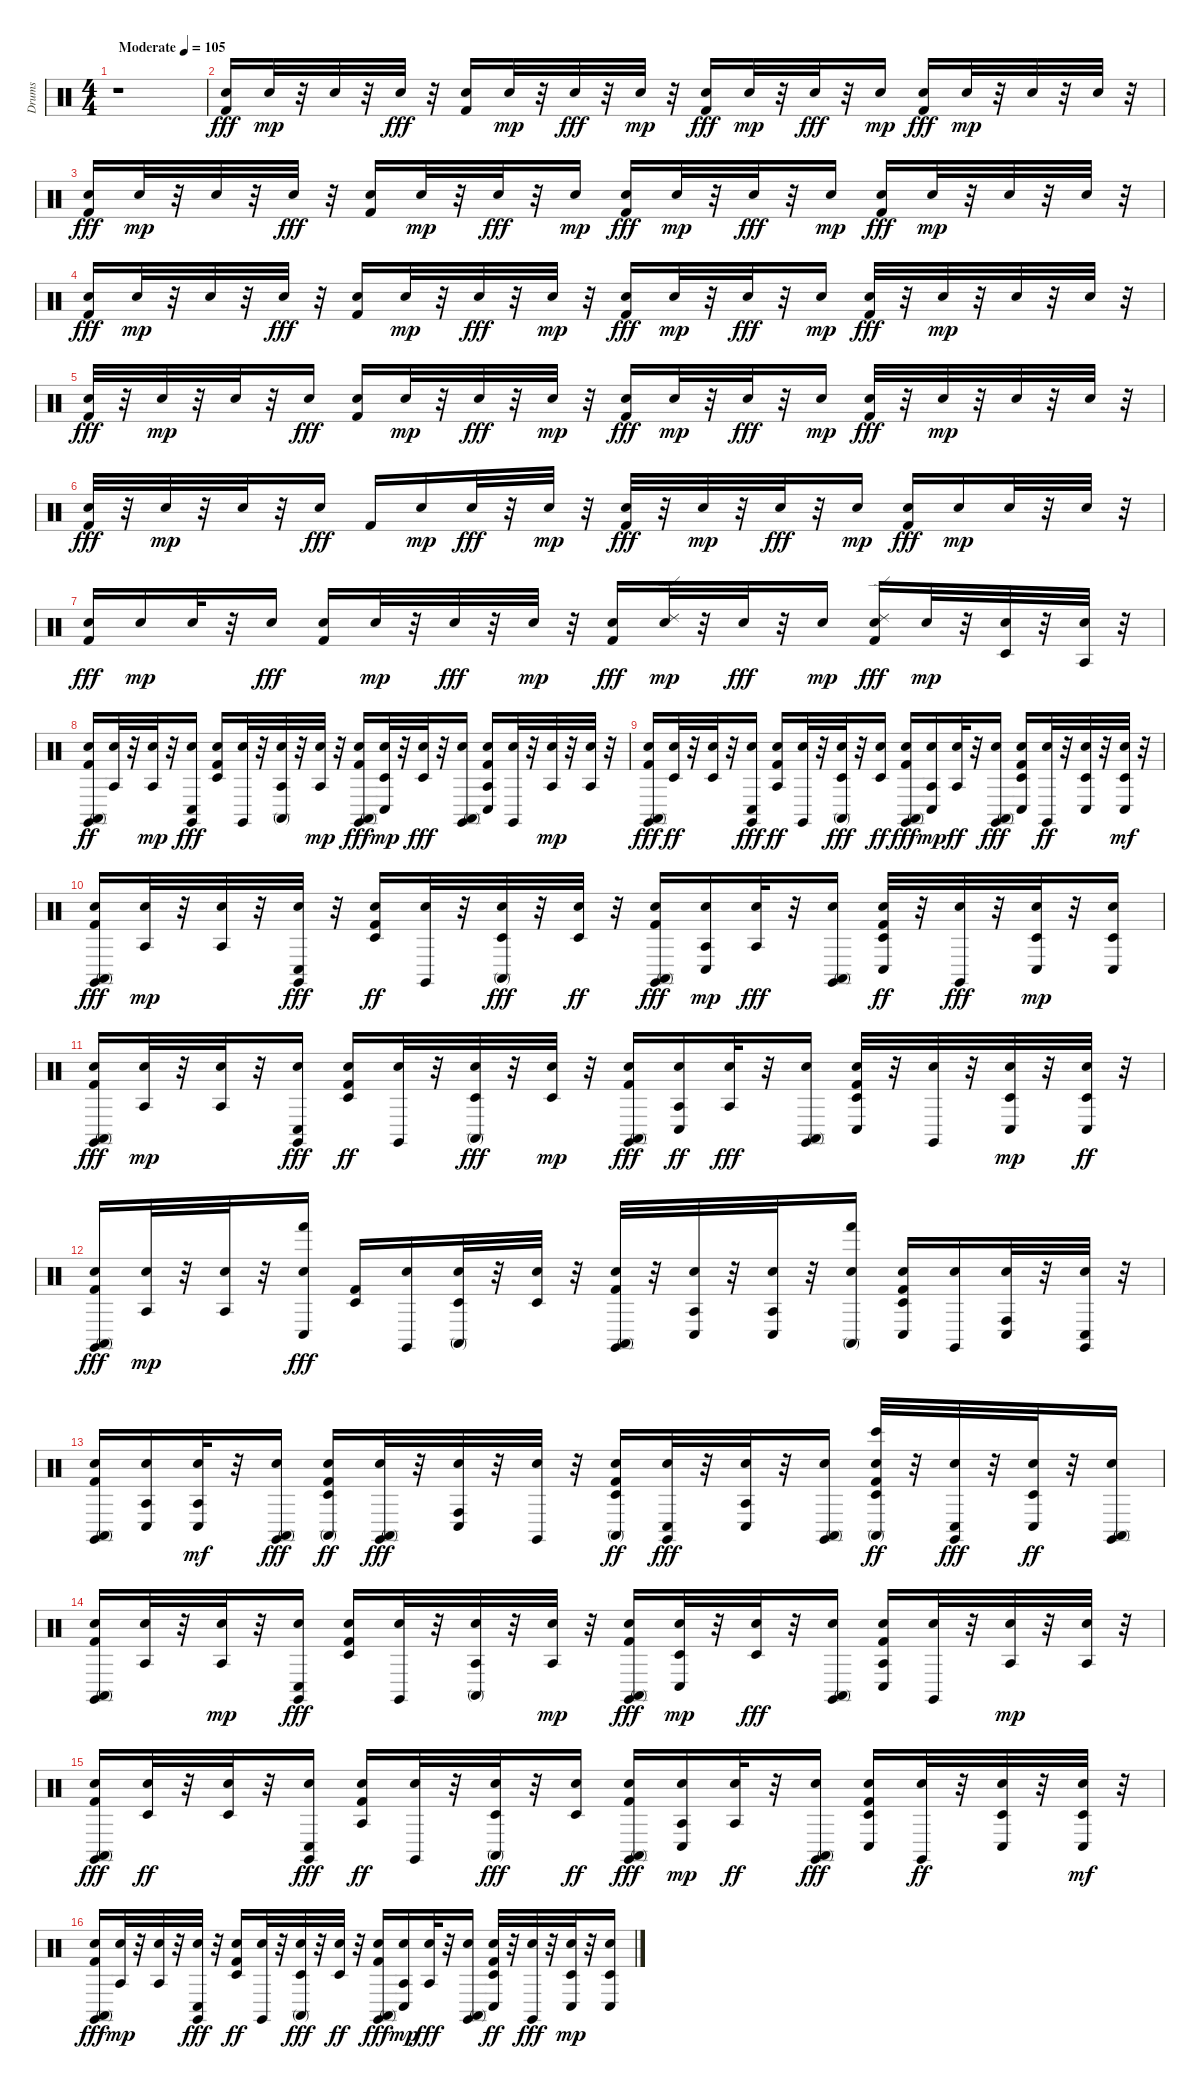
\track ("Drums" "Drums") {instrument percussion}
\staff {score}
\articulation defaults
\ts (4 4)
\tempo (105 "Moderate")
\clef neutral
\ks c
r.1{dy fff} |
("Snare (hit) 2" "Kick (hit) 2").16 "Snare (hit) 2".32{dy mp} r.32 "Snare (hit) 2".32 r.32 "Snare (hit) 2".32{dy fff} r.32 ("Snare (hit) 2" "Kick (hit) 2").16 "Snare (hit) 2".32{dy mp} r.32 "Snare (hit) 2".32{dy fff} r.32 "Snare (hit) 2".32{dy mp} r.32 ("Snare (hit) 2" "Kick (hit) 2").16{dy fff} "Snare (hit) 2".32{dy mp} r.32 "Snare (hit) 2".32{dy fff} r.32 "Snare (hit) 2".16{dy mp} ("Snare (hit) 2" "Kick (hit) 2").16{dy fff} "Snare (hit) 2".32{dy mp} r.32 "Snare (hit) 2".32 r.32 "Snare (hit) 2".32 r.32 |
("Snare (hit) 2" "Kick (hit) 2").16{dy fff} "Snare (hit) 2".32{dy mp} r.32 "Snare (hit) 2".32 r.32 "Snare (hit) 2".32{dy fff} r.32 ("Snare (hit) 2" "Kick (hit) 2").16 "Snare (hit) 2".32{dy mp} r.32 "Snare (hit) 2".32{dy fff} r.32 "Snare (hit) 2".16{dy mp} ("Snare (hit) 2" "Kick (hit) 2").16{dy fff} "Snare (hit) 2".32{dy mp} r.32 "Snare (hit) 2".32{dy fff} r.32 "Snare (hit) 2".16{dy mp} ("Snare (hit) 2" "Kick (hit) 2").16{dy fff} "Snare (hit) 2".32{dy mp} r.32 "Snare (hit) 2".32 r.32 "Snare (hit) 2".32 r.32 |
("Kick (hit) 2" "Snare (hit) 2").16{dy fff} "Snare (hit) 2".32{dy mp} r.32 "Snare (hit) 2".32 r.32 "Snare (hit) 2".32{dy fff} r.32 ("Snare (hit) 2" "Kick (hit) 2").16 "Snare (hit) 2".32{dy mp} r.32 "Snare (hit) 2".32{dy fff} r.32 "Snare (hit) 2".32{dy mp} r.32 ("Snare (hit) 2" "Kick (hit) 2").16{dy fff} "Snare (hit) 2".32{dy mp} r.32 "Snare (hit) 2".32{dy fff} r.32 "Snare (hit) 2".16{dy mp} ("Kick (hit) 2" "Snare (hit) 2").32{dy fff} r.32 "Snare (hit) 2".32{dy mp} r.32 "Snare (hit) 2".32 r.32 "Snare (hit) 2".32 r.32 |
("Kick (hit) 2" "Snare (hit) 2").32{dy fff} r.32 "Snare (hit) 2".32{dy mp} r.32 "Snare (hit) 2".32 r.32 "Snare (hit) 2".16{dy fff} ("Snare (hit) 2" "Kick (hit) 2").16 "Snare (hit) 2".32{dy mp} r.32 "Snare (hit) 2".32{dy fff} r.32 "Snare (hit) 2".32{dy mp} r.32 ("Snare (hit) 2" "Kick (hit) 2").16{dy fff} "Snare (hit) 2".32{dy mp} r.32 "Snare (hit) 2".32{dy fff} r.32 "Snare (hit) 2".16{dy mp} ("Kick (hit) 2" "Snare (hit) 2").32{dy fff} r.32 "Snare (hit) 2".32{dy mp} r.32 "Snare (hit) 2".32 r.32 "Snare (hit) 2".32 r.32 |
("Snare (hit) 2" "Kick (hit) 2").32{dy fff} r.32 "Snare (hit) 2".32{dy mp} r.32 "Snare (hit) 2".32 r.32 "Snare (hit) 2".16{dy fff} "Kick (hit) 2".16 "Snare (hit) 2".16{dy mp} "Snare (hit) 2".32{dy fff} r.32 "Snare (hit) 2".32{dy mp} r.32 ("Snare (hit) 2" "Kick (hit) 2").32{dy fff} r.32 "Snare (hit) 2".32{dy mp} r.32 "Snare (hit) 2".32{dy fff} r.32 "Snare (hit) 2".16{dy mp} ("Snare (hit) 2" "Kick (hit) 2").16{dy fff} "Snare (hit) 2".16{dy mp} "Snare (hit) 2".32 r.32 "Snare (hit) 2".32 r.32 |
("Snare (hit) 2" "Kick (hit) 2").16{dy fff} "Snare (hit) 2".16{dy mp} "Snare (hit) 2".32 r.32 "Snare (hit) 2".16{dy fff} ("Snare (hit) 2" "Kick (hit) 2").16 "Snare (hit) 2".32{dy mp} r.32 "Snare (hit) 2".32{dy fff} r.32 "Snare (hit) 2".32{dy mp} r.32 ("Snare (hit) 2" "Kick (hit) 2").16{dy fff} ("Ride (edge) 2" "Snare (hit) 2").32{dy mp} r.32 "Snare (hit) 2".32{dy fff} r.32 "Snare (hit) 2".16{dy mp} ("Ride (edge) 2" "Snare (hit) 2" "Kick (hit) 2").16{dy fff} "Snare (hit) 2".32{dy mp} r.32 ("Timbale low (hit)" "Snare (hit) 2").32 r.32 ("Agogo tow (hit)" "Snare (hit) 2").32 r.32 |
("Conga high (mute)" "Snare (hit) 2" "Kick (hit) 2" "Claves (hit)").16{dy ff} ("Snare (hit) 2" "Agogo tow (hit)").32 r.32 ("Snare (hit) 2" "Agogo tow (hit)").32{dy mp} r.32 ("Snare (hit) 2" "Conga low (hit)" "Claves (hit)").16{dy fff} ("Timbale low (hit)" "Snare (hit) 2" "Kick (hit) 2").16 ("Snare (hit) 2" "Claves (hit)").32 r.32 ("Conga high (mute)" "Agogo tow (hit)" "Snare (hit) 2").32 r.32 ("Agogo tow (hit)" "Snare (hit) 2").32{dy mp} r.32 ("Snare (hit) 2" "Kick (hit) 2" "Conga high (mute)" "Claves (hit)").16{dy fff} ("Snare (hit) 2" "Timbale low (hit)" "Conga low (hit)").32{dy mp} r.32 ("Timbale low (hit)" "Snare (hit) 2").32{dy fff} r.32 ("Conga high (mute)" "Snare (hit) 2" "Claves (hit)").16 ("Conga low (hit)" "Agogo tow (hit)" "Snare (hit) 2" "Kick (hit) 2").16 ("Snare (hit) 2" "Claves (hit)").32 r.32 ("Agogo tow (hit)" "Snare (hit) 2").32{dy mp} r.32 ("Agogo tow (hit)" "Snare (hit) 2").32 r.32 |
("Conga high (mute)" "Snare (hit) 2" "Kick (hit) 2" "Claves (hit)").16{dy fff} ("Snare (hit) 2" "Timbale low (hit)").32{dy ff} r.32 ("Snare (hit) 2" "Timbale low (hit)").32 r.32 ("Conga low (hit)" "Snare (hit) 2" "Claves (hit)").16{dy fff} ("Snare (hit) 2" "Kick (hit) 2" "Agogo tow (hit)").16{dy ff} ("Snare (hit) 2" "Claves (hit)").32 r.32 ("Conga high (mute)" "Timbale low (hit)" "Snare (hit) 2").32{dy fff} r.32 ("Snare (hit) 2" "Timbale low (hit)").16{dy ff} ("Conga high (mute)" "Snare (hit) 2" "Kick (hit) 2" "Claves (hit)").16{dy fff} ("Conga low (hit)" "Agogo tow (hit)" "Snare (hit) 2").16{dy mp} ("Snare (hit) 2" "Agogo tow (hit)").32{dy ff} r.32 ("Conga high (mute)" "Snare (hit) 2" "Claves (hit)").16{dy fff} ("Timbale low (hit)" "Snare (hit) 2" "Kick (hit) 2" "Conga low (hit)").16 ("Snare (hit) 2" "Claves (hit)").32{dy ff} r.32 ("Timbale low (hit)" "Snare (hit) 2" "Conga low (hit)").32 r.32 ("Timbale low (hit)" "Snare (hit) 2" "Conga low (hit)").32{dy mf} r.32 |
("Kick (hit) 2" "Snare (hit) 2" "Conga high (mute)" "Claves (hit)").16{dy fff} ("Agogo tow (hit)" "Snare (hit) 2").32{dy mp} r.32 ("Agogo tow (hit)" "Snare (hit) 2").32 r.32 ("Conga low (hit)" "Snare (hit) 2" "Claves (hit)").32{dy fff} r.32 ("Snare (hit) 2" "Kick (hit) 2" "Timbale low (hit)").16{dy ff} ("Snare (hit) 2" "Claves (hit)").32 r.32 ("Conga high (mute)" "Timbale low (hit)" "Snare (hit) 2").32{dy fff} r.32 ("Snare (hit) 2" "Timbale low (hit)").32{dy ff} r.32 ("Conga high (mute)" "Snare (hit) 2" "Kick (hit) 2" "Claves (hit)").16{dy fff} ("Conga low (hit)" "Agogo tow (hit)" "Snare (hit) 2").16{dy mp} ("Agogo tow (hit)" "Snare (hit) 2").32{dy fff} r.32 ("Conga high (mute)" "Snare (hit) 2" "Claves (hit)").16 ("Kick (hit) 2" "Snare (hit) 2" "Timbale low (hit)" "Conga low (hit)").32{dy ff} r.32 ("Snare (hit) 2" "Claves (hit)").32{dy fff} r.32 ("Timbale low (hit)" "Snare (hit) 2" "Conga low (hit)").32{dy mp} r.32 ("Conga low (hit)" "Timbale low (hit)" "Snare (hit) 2").16 |
("Kick (hit) 2" "Snare (hit) 2" "Conga high (mute)" "Claves (hit)").16{dy fff} ("Agogo tow (hit)" "Snare (hit) 2").32{dy mp} r.32 ("Agogo tow (hit)" "Snare (hit) 2").32 r.32 ("Conga low (hit)" "Snare (hit) 2" "Claves (hit)").16{dy fff} ("Snare (hit) 2" "Kick (hit) 2" "Timbale low (hit)").16{dy ff} ("Snare (hit) 2" "Claves (hit)").32 r.32 ("Conga high (mute)" "Timbale low (hit)" "Snare (hit) 2").32{dy fff} r.32 ("Timbale low (hit)" "Snare (hit) 2").32{dy mp} r.32 ("Snare (hit) 2" "Kick (hit) 2" "Conga high (mute)" "Claves (hit)").16{dy fff} ("Agogo tow (hit)" "Snare (hit) 2" "Conga low (hit)").16{dy ff} ("Agogo tow (hit)" "Snare (hit) 2").32{dy fff} r.32 ("Conga high (mute)" "Snare (hit) 2" "Claves (hit)").16 ("Timbale low (hit)" "Kick (hit) 2" "Snare (hit) 2" "Conga low (hit)").32 r.32 ("Snare (hit) 2" "Claves (hit)").32 r.32 ("Conga low (hit)" "Timbale low (hit)" "Snare (hit) 2").32{dy mp} r.32 ("Conga low (hit)" "Snare (hit) 2" "Timbale low (hit)").32{dy ff} r.32 |
("Conga high (mute)" "Snare (hit) 2" "Kick (hit) 2" "Claves (hit)").16{dy fff} ("Agogo tow (hit)" "Snare (hit) 2").32{dy mp} r.32 ("Agogo tow (hit)" "Snare (hit) 2").32 r.32 ("Conga low (hit)" "Hand (hit)" "Snare (hit) 2").16{dy fff} ("Kick (hit) 2" "Timbale low (hit)").16 ("Snare (hit) 2" "Claves (hit)").16 ("Conga high (mute)" "Timbale low (hit)" "Snare (hit) 2").32 r.32 ("Snare (hit) 2" "Timbale low (hit)").32 r.32 ("Conga high (mute)" "Snare (hit) 2" "Kick (hit) 2" "Claves (hit)").32 r.32 ("Conga low (hit)" "Snare (hit) 2" "Agogo tow (hit)").32 r.32 ("Conga low (hit)" "Snare (hit) 2" "Agogo tow (hit)").32 r.32 ("Conga high (mute)" "Snare (hit) 2" "Hand (hit)").16 ("Snare (hit) 2" "Kick (hit) 2" "Timbale low (hit)" "Conga low (hit)").16 ("Snare (hit) 2" "Claves (hit)").16 ("Snare (hit) 2" "Conga high (hit)" "Conga low (hit)").32 r.32 ("Conga low (hit)" "Snare (hit) 2" "Claves (hit)").32 r.32 |
("Snare (hit) 2" "Kick (hit) 2" "Conga high (mute)" "Claves (hit)").16 ("Conga low (hit)" "Snare (hit) 2" "Agogo tow (hit)").16 ("Snare (hit) 2" "Agogo tow (hit)" "Conga low (hit)").32{dy mf} r.32 ("Conga high (mute)" "Snare (hit) 2" "Claves (hit)").16{dy fff} ("Snare (hit) 2" "Kick (hit) 2" "Timbale low (hit)" "Conga high (mute)").16{dy ff} ("Snare (hit) 2" "Conga high (mute)" "Claves (hit)").32{dy fff} r.32 ("Snare (hit) 2" "Conga high (hit)" "Conga low (hit)").32 r.32 ("Snare (hit) 2" "Claves (hit)").32 r.32 ("Timbale low (hit)" "Snare (hit) 2" "Kick (hit) 2" "Conga high (mute)").16{dy ff} ("Conga low (hit)" "Snare (hit) 2" "Claves (hit)").32{dy fff} r.32 ("Agogo tow (hit)" "Snare (hit) 2" "Conga low (hit)").32 r.32 ("Snare (hit) 2" "Conga high (mute)" "Claves (hit)").16 ("Timbale low (hit)" "Snare (hit) 2" "Kick (hit) 2" "Conga high (mute)" "Bongo High (hit)").32{dy ff} r.32 ("Snare (hit) 2" "Conga low (hit)" "Claves (hit)").32{dy fff} r.32 ("Snare (hit) 2" "Timbale low (hit)" "Conga low (hit)").32{dy ff} r.32 ("Conga high (mute)" "Snare (hit) 2" "Claves (hit)").16 |
("Conga high (mute)" "Snare (hit) 2" "Kick (hit) 2" "Claves (hit)").16 ("Snare (hit) 2" "Agogo tow (hit)").32 r.32 ("Snare (hit) 2" "Agogo tow (hit)").32{dy mp} r.32 ("Snare (hit) 2" "Conga low (hit)" "Claves (hit)").16{dy fff} ("Timbale low (hit)" "Snare (hit) 2" "Kick (hit) 2").16 ("Snare (hit) 2" "Claves (hit)").32 r.32 ("Conga high (mute)" "Agogo tow (hit)" "Snare (hit) 2").32 r.32 ("Agogo tow (hit)" "Snare (hit) 2").32{dy mp} r.32 ("Snare (hit) 2" "Kick (hit) 2" "Conga high (mute)" "Claves (hit)").16{dy fff} ("Snare (hit) 2" "Timbale low (hit)" "Conga low (hit)").32{dy mp} r.32 ("Timbale low (hit)" "Snare (hit) 2").32{dy fff} r.32 ("Conga high (mute)" "Snare (hit) 2" "Claves (hit)").16 ("Conga low (hit)" "Agogo tow (hit)" "Snare (hit) 2" "Kick (hit) 2").16 ("Snare (hit) 2" "Claves (hit)").32 r.32 ("Agogo tow (hit)" "Snare (hit) 2").32{dy mp} r.32 ("Agogo tow (hit)" "Snare (hit) 2").32 r.32 |
("Conga high (mute)" "Snare (hit) 2" "Kick (hit) 2" "Claves (hit)").16{dy fff} ("Snare (hit) 2" "Timbale low (hit)").32{dy ff} r.32 ("Snare (hit) 2" "Timbale low (hit)").32 r.32 ("Conga low (hit)" "Snare (hit) 2" "Claves (hit)").16{dy fff} ("Snare (hit) 2" "Kick (hit) 2" "Agogo tow (hit)").16{dy ff} ("Snare (hit) 2" "Claves (hit)").32 r.32 ("Conga high (mute)" "Timbale low (hit)" "Snare (hit) 2").32{dy fff} r.32 ("Snare (hit) 2" "Timbale low (hit)").16{dy ff} ("Conga high (mute)" "Snare (hit) 2" "Kick (hit) 2" "Claves (hit)").16{dy fff} ("Conga low (hit)" "Agogo tow (hit)" "Snare (hit) 2").16{dy mp} ("Snare (hit) 2" "Agogo tow (hit)").32{dy ff} r.32 ("Conga high (mute)" "Snare (hit) 2" "Claves (hit)").16{dy fff} ("Timbale low (hit)" "Snare (hit) 2" "Kick (hit) 2" "Conga low (hit)").16 ("Snare (hit) 2" "Claves (hit)").32{dy ff} r.32 ("Timbale low (hit)" "Snare (hit) 2" "Conga low (hit)").32 r.32 ("Timbale low (hit)" "Snare (hit) 2" "Conga low (hit)").32{dy mf} r.32 |
("Kick (hit) 2" "Snare (hit) 2" "Conga high (mute)" "Claves (hit)").16{dy fff} ("Agogo tow (hit)" "Snare (hit) 2").32{dy mp} r.32 ("Agogo tow (hit)" "Snare (hit) 2").32 r.32 ("Conga low (hit)" "Snare (hit) 2" "Claves (hit)").32{dy fff} r.32 ("Snare (hit) 2" "Kick (hit) 2" "Timbale low (hit)").16{dy ff} ("Snare (hit) 2" "Claves (hit)").32 r.32 ("Conga high (mute)" "Timbale low (hit)" "Snare (hit) 2").32{dy fff} r.32 ("Snare (hit) 2" "Timbale low (hit)").32{dy ff} r.32 ("Conga high (mute)" "Snare (hit) 2" "Kick (hit) 2" "Claves (hit)").16{dy fff} ("Conga low (hit)" "Agogo tow (hit)" "Snare (hit) 2").16{dy mp} ("Agogo tow (hit)" "Snare (hit) 2").32{dy fff} r.32 ("Conga high (mute)" "Snare (hit) 2" "Claves (hit)").16 ("Kick (hit) 2" "Snare (hit) 2" "Timbale low (hit)" "Conga low (hit)").32{dy ff} r.32 ("Snare (hit) 2" "Claves (hit)").32{dy fff} r.32 ("Timbale low (hit)" "Snare (hit) 2" "Conga low (hit)").32{dy mp} r.32 ("Conga low (hit)" "Timbale low (hit)" "Snare (hit) 2").16
